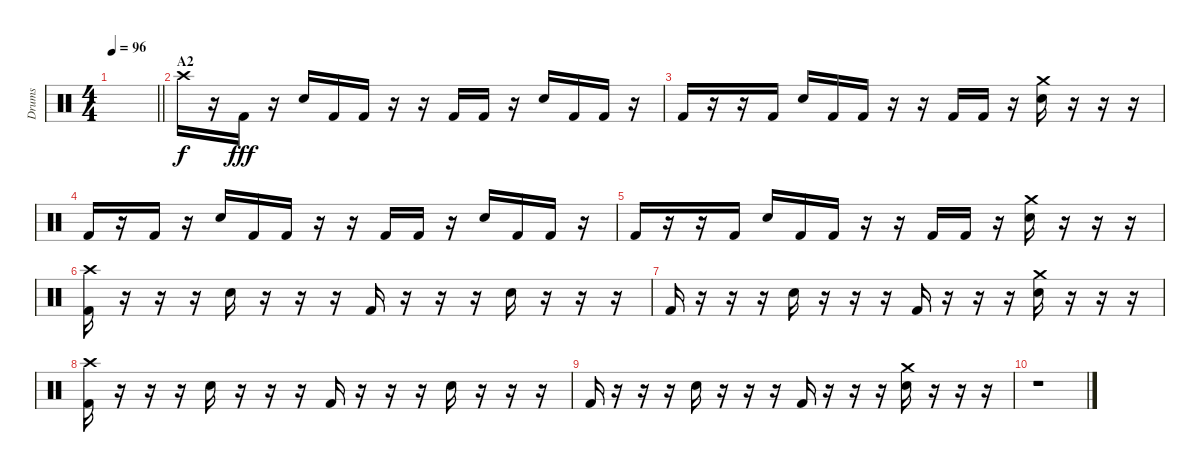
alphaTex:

\track ("Drums" "Drums") {instrument percussion}
\staff
\articulation defaults
\ts (4 4)
\tempo 96
\clef neutral
\barLineRight lightlight
\ks c
|
\section ("" "A2")
"Crash high (hit)".16{dy f} r.16 "Kick (hit) 2".16{dy fff} r.16 "Electric Snare (hit)".16 "Kick (hit) 2".16 "Kick (hit) 2".16 r.16 r.16 "Kick (hit) 2".16 "Kick (hit) 2".16 r.16 "Electric Snare (hit)".16 "Kick (hit) 2".16 "Kick (hit) 2".16 r.16 |
"Kick (hit) 2".16 r.16 r.16 "Kick (hit) 2".16 "Electric Snare (hit)".16 "Kick (hit) 2".16 "Kick (hit) 2".16 r.16 r.16 "Kick (hit) 2".16 "Kick (hit) 2".16 r.16 ("Crash medium (hit)" "Electric Snare (hit)").16 r.16 r.16 r.16 |
"Kick (hit) 2".16 r.16 "Kick (hit) 2".16 r.16 "Electric Snare (hit)".16 "Kick (hit) 2".16 "Kick (hit) 2".16 r.16 r.16 "Kick (hit) 2".16 "Kick (hit) 2".16 r.16 "Electric Snare (hit)".16 "Kick (hit) 2".16 "Kick (hit) 2".16 r.16 |
"Kick (hit) 2".16 r.16 r.16 "Kick (hit) 2".16 "Electric Snare (hit)".16 "Kick (hit) 2".16 "Kick (hit) 2".16 r.16 r.16 "Kick (hit) 2".16 "Kick (hit) 2".16 r.16 ("Crash medium (hit)" "Electric Snare (hit)").16 r.16 r.16 r.16 |
("Crash high (hit)" "Kick (hit) 2").16 r.16 r.16 r.16 "Electric Snare (hit)".16 r.16 r.16 r.16 "Kick (hit) 2".16 r.16 r.16 r.16 "Electric Snare (hit)".16 r.16 r.16 r.16 |
"Kick (hit) 2".16 r.16 r.16 r.16 "Electric Snare (hit)".16 r.16 r.16 r.16 "Kick (hit) 2".16 r.16 r.16 r.16 ("Crash medium (hit)" "Electric Snare (hit)").16 r.16 r.16 r.16 |
("Crash high (hit)" "Kick (hit) 2").16 r.16 r.16 r.16 "Electric Snare (hit)".16 r.16 r.16 r.16 "Kick (hit) 2".16 r.16 r.16 r.16 "Electric Snare (hit)".16 r.16 r.16 r.16 |
"Kick (hit) 2".16 r.16 r.16 r.16 "Electric Snare (hit)".16 r.16 r.16 r.16 "Kick (hit) 2".16 r.16 r.16 r.16 ("Crash medium (hit)" "Electric Snare (hit)").16 r.16 r.16 r.16 |
r.1
